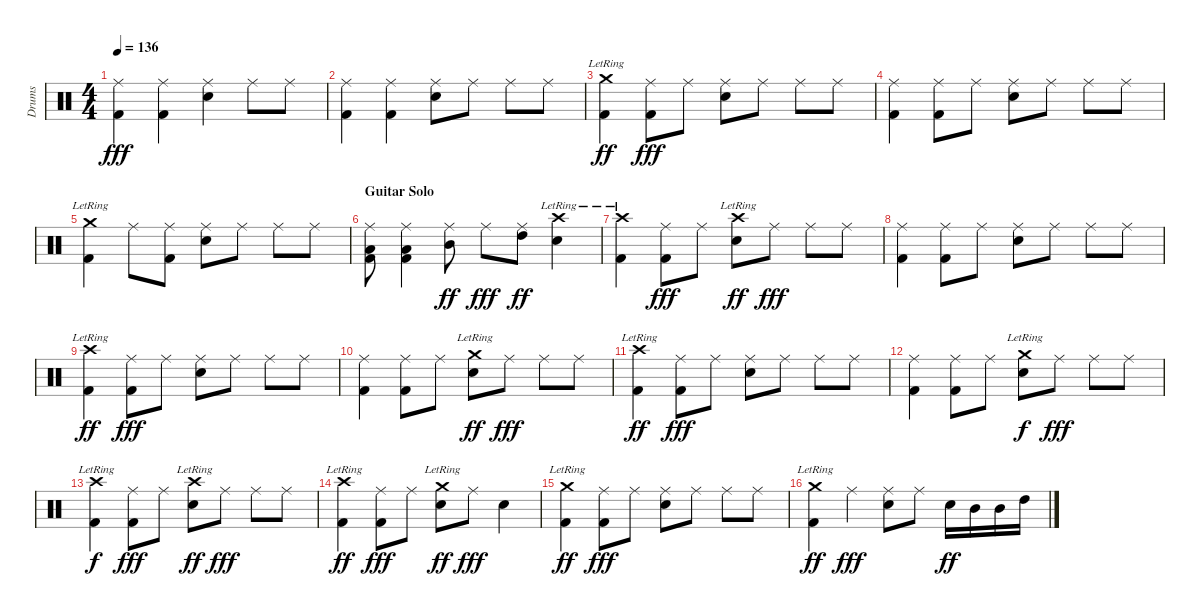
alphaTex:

\track ("Drums" "Drums") {instrument percussion}
\staff {score}
\articulation defaults
\ts (4 4)
\tempo 136
\clef neutral
\ks c
("Ride (middle)" "Kick (hit) 2").4{txt " " dy fff} ("Ride (middle)" "Kick (hit) 2").4 ("Ride (middle)" "Snare (hit) 2").4 "Ride (middle)".8 "Ride (middle)".8 |
("Ride (middle)" "Kick (hit) 2").4{txt " "} ("Ride (middle)" "Kick (hit) 2").4 ("Ride (middle)" "Snare (hit) 2").8 "Ride (middle)".8 "Ride (middle)".8 "Ride (middle)".8 |
("Crash medium (hit)"{lr} "Kick (hit) 2").4{dy ff} ("Ride (middle)" "Kick (hit) 2").8{dy fff} "Ride (middle)".8 ("Ride (middle)" "Snare (hit) 2").8 "Ride (middle)".8{txt " "} "Ride (middle)".8 "Ride (middle)".8 |
("Ride (middle)" "Kick (hit) 2").4 ("Ride (middle)" "Kick (hit) 2").8 "Ride (middle)".8 ("Ride (middle)" "Snare (hit) 2").8 "Ride (middle)".8{txt " "} "Ride (middle)".8 "Ride (middle)".8 |
("Crash medium (hit)"{lr} "Kick (hit) 2").4{txt " "} "Ride (middle)".8 ("Ride (middle)" "Kick (hit) 2").8 ("Ride (middle)" "Snare (hit) 2").8 "Ride (middle)".8 "Ride (middle)".8 "Ride (middle)".8 |
\section ("" "Guitar Solo")
("Ride (middle)" "Low Tom (hit)" "Kick (hit) 2").8 ("Ride (middle)" "Low Tom (hit)" "Kick (hit) 2").4 ("Ride (middle)" "Mid Tom (hit)").8{dy ff} "Ride (middle)".8{dy fff} ("Ride (middle)" "High Tom (hit)").8{txt " " dy ff} ("Crash high (hit)"{lr} "Snare (hit) 2").4 |
("Crash high (hit)"{lr} "Kick (hit) 2").4 ("Ride (middle)" "Kick (hit) 2").8{dy fff} "Ride (middle)".8 ("Crash high (hit)"{lr} "Snare (hit) 2").8{dy ff} "Ride (middle)".8{dy fff} "Ride (middle)".8 "Ride (middle)".8 |
("Ride (middle)" "Kick (hit) 2").4 ("Ride (middle)" "Kick (hit) 2").8 "Ride (middle)".8 ("Ride (middle)" "Snare (hit) 2").8 "Ride (middle)".8{txt " "} "Ride (middle)".8 "Ride (middle)".8 |
("Crash high (hit)"{lr} "Kick (hit) 2").4{dy ff} ("Ride (middle)" "Kick (hit) 2").8{dy fff} "Ride (middle)".8 ("Ride (middle)" "Snare (hit) 2").8 "Ride (middle)".8 "Ride (middle)".8 "Ride (middle)".8 |
("Ride (middle)" "Kick (hit) 2").4{txt " "} ("Ride (middle)" "Kick (hit) 2").8 "Ride (middle)".8 ("Crash medium (hit)"{lr} "Snare (hit) 2").8{dy ff} "Ride (middle)".8{dy fff} "Ride (middle)".8 "Ride (middle)".8 |
("Crash high (hit)"{lr} "Kick (hit) 2").4{dy ff} ("Ride (middle)" "Kick (hit) 2").8{dy fff} "Ride (middle)".8 ("Ride (middle)" "Snare (hit) 2").8 "Ride (middle)".8{txt " "} "Ride (middle)".8 "Ride (middle)".8 |
("Ride (middle)" "Kick (hit) 2").4 ("Ride (middle)" "Kick (hit) 2").8 "Ride (middle)".8 ("Crash medium (hit)"{lr} "Snare (hit) 2").8{dy f} "Ride (middle)".8{dy fff} "Ride (middle)".8 "Ride (middle)".8 |
("Crash high (hit)"{lr} "Kick (hit) 2").4{txt " " dy f} ("Ride (middle)" "Kick (hit) 2").8{dy fff} "Ride (middle)".8 ("Crash high (hit)"{lr} "Snare (hit) 2").8{dy ff} "Ride (middle)".8{dy fff} "Ride (middle)".8 "Ride (middle)".8 |
("Crash high (hit)"{lr} "Kick (hit) 2").4{dy ff} ("Ride (middle)" "Kick (hit) 2").8{dy fff} "Ride (middle)".8 ("Crash medium (hit)"{lr} "Snare (hit) 2").8{dy ff} "Ride (middle)".8{txt " " dy fff} "Snare (hit) 2".4 |
("Crash medium (hit)"{lr} "Kick (hit) 2").4{txt " " dy ff} ("Ride (middle)" "Kick (hit) 2").8{dy fff} "Ride (middle)".8 ("Ride (middle)" "Snare (hit) 2").8 "Ride (middle)".8 "Ride (middle)".8 "Ride (middle)".8 |
("Crash medium (hit)"{lr} "Kick (hit) 2").4{dy ff} "Ride (middle)".4{dy fff} ("Ride (middle)" "Snare (hit) 2").8 "Ride (middle)".8{txt " "} "Snare (hit) 2".16{dy ff} "Mid Tom (hit)".16 "Mid Tom (hit)".16 "High Tom (hit)".16
